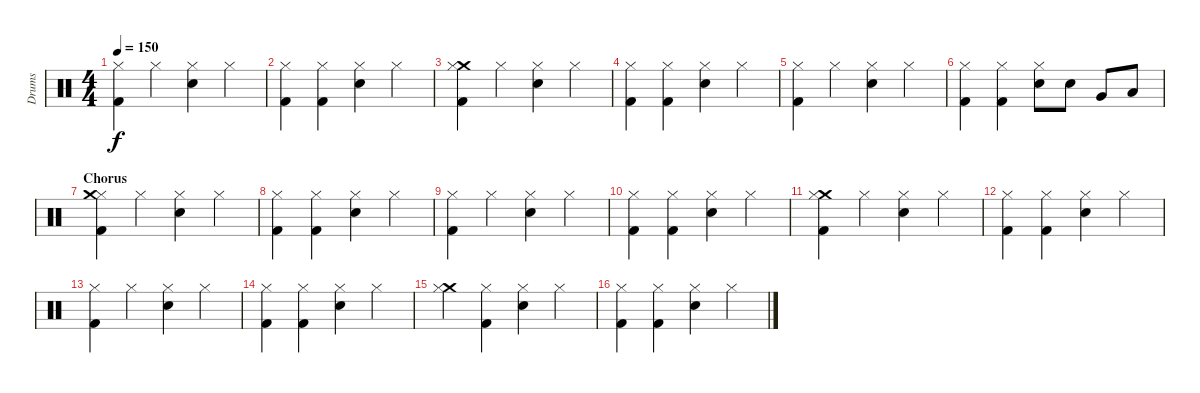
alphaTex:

\track ("Drums" "Drums") {instrument percussion}
\staff {score}
\articulation defaults
\ts (4 4)
\tempo 150
\clef neutral
\ks c
("Kick (hit) 2" "Hi-Hat (closed)").4{dy f} "Hi-Hat (closed)".4 ("Hi-Hat (closed)" "Snare (hit) 2").4 "Hi-Hat (closed)".4 |
("Kick (hit) 2" "Hi-Hat (closed)").4 ("Hi-Hat (closed)" "Kick (hit) 2").4 ("Hi-Hat (closed)" "Snare (hit) 2").4 "Hi-Hat (closed)".4 |
("Kick (hit) 2" "Crash medium (hit)" "Hi-Hat (closed)").4 "Hi-Hat (closed)".4 ("Hi-Hat (closed)" "Snare (hit) 2").4 "Hi-Hat (closed)".4 |
("Kick (hit) 2" "Hi-Hat (closed)").4 ("Hi-Hat (closed)" "Kick (hit) 2").4 ("Hi-Hat (closed)" "Snare (hit) 2").4 "Hi-Hat (closed)".4 |
("Kick (hit) 2" "Hi-Hat (closed)").4 "Hi-Hat (closed)".4 ("Hi-Hat (closed)" "Snare (hit) 2").4 "Hi-Hat (closed)".4 |
("Kick (hit) 2" "Hi-Hat (closed)").4 ("Hi-Hat (closed)" "Kick (hit) 2").4 ("Hi-Hat (closed)" "Snare (hit) 2").8 "Snare (hit) 2".8 "Very Low Tom (hit)".8 "Low Floor Tom (hit)".8 |
\section ("" "Chorus")
("Kick (hit) 2" "Hi-Hat (closed)" "Crash medium (hit)").4 "Hi-Hat (closed)".4 ("Hi-Hat (closed)" "Snare (hit) 2").4 "Hi-Hat (closed)".4 |
("Kick (hit) 2" "Hi-Hat (closed)").4 ("Hi-Hat (closed)" "Kick (hit) 2").4 ("Hi-Hat (closed)" "Snare (hit) 2").4 "Hi-Hat (closed)".4 |
("Kick (hit) 2" "Hi-Hat (closed)").4 "Hi-Hat (closed)".4 ("Hi-Hat (closed)" "Snare (hit) 2").4 "Hi-Hat (closed)".4 |
("Kick (hit) 2" "Hi-Hat (closed)").4 ("Hi-Hat (closed)" "Kick (hit) 2").4 ("Hi-Hat (closed)" "Snare (hit) 2").4 "Hi-Hat (closed)".4 |
("Kick (hit) 2" "Crash medium (hit)" "Hi-Hat (closed)").4 "Hi-Hat (closed)".4 ("Hi-Hat (closed)" "Snare (hit) 2").4 "Hi-Hat (closed)".4 |
("Kick (hit) 2" "Hi-Hat (closed)").4 ("Hi-Hat (closed)" "Kick (hit) 2").4 ("Hi-Hat (closed)" "Snare (hit) 2").4 "Hi-Hat (closed)".4 |
("Kick (hit) 2" "Hi-Hat (closed)").4 "Hi-Hat (closed)".4 ("Hi-Hat (closed)" "Snare (hit) 2").4 "Hi-Hat (closed)".4 |
("Kick (hit) 2" "Hi-Hat (closed)").4 ("Hi-Hat (closed)" "Kick (hit) 2").4 ("Hi-Hat (closed)" "Snare (hit) 2").4 "Hi-Hat (closed)".4 |
("Crash medium (hit)" "Hi-Hat (closed)").4 ("Hi-Hat (closed)" "Kick (hit) 2").4 ("Hi-Hat (closed)" "Snare (hit) 2").4 "Hi-Hat (closed)".4 |
("Kick (hit) 2" "Hi-Hat (closed)").4 ("Hi-Hat (closed)" "Kick (hit) 2").4 ("Hi-Hat (closed)" "Snare (hit) 2").4 "Hi-Hat (closed)".4
